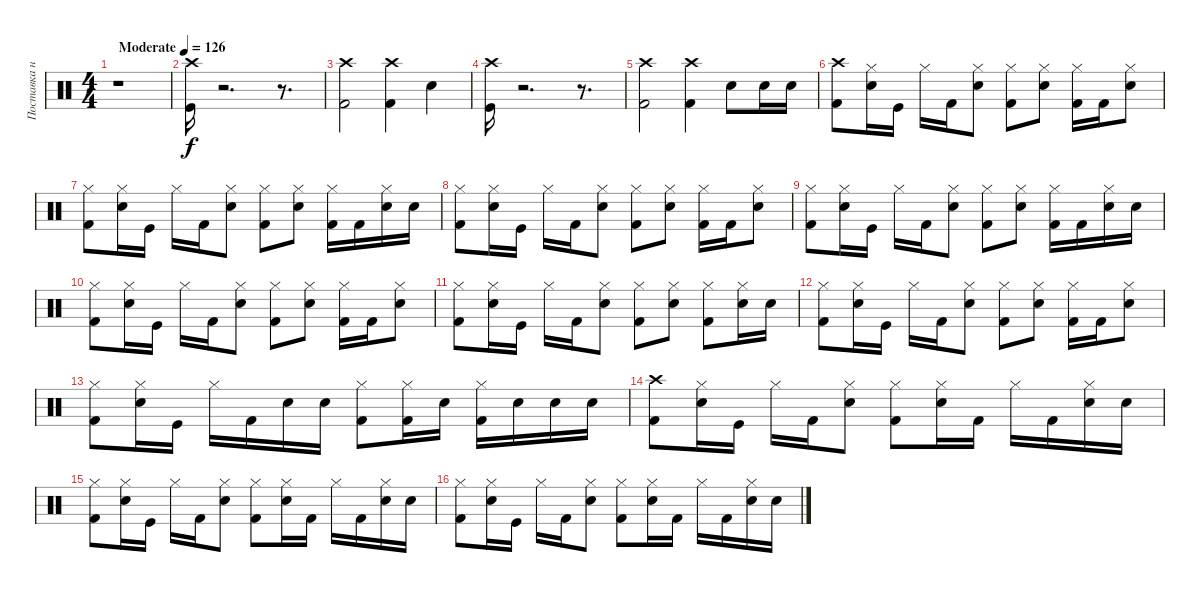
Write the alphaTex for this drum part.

\track ("Поставка на ударки" "Поставка н") {instrument percussion}
\staff {score}
\articulation defaults
\ts (4 4)
\tempo (126 "Moderate")
\clef neutral
\ks c
r.1{dy f} |
("Crash high (hit)" "Kick (hit)").16 r.2{d} r.8{d} |
("Kick (hit) 2" "Crash high (hit)").2 ("Kick (hit) 2" "Crash high (hit)").4 "Snare (hit) 2".4 |
("Crash high (hit)" "Kick (hit)").16 r.2{d} r.8{d} |
("Kick (hit) 2" "Crash high (hit)").2 ("Kick (hit) 2" "Crash high (hit)").4 "Snare (hit) 2".8 "Snare (hit) 2".16 "Snare (hit) 2".16 |
("Crash high (hit)" "Kick (hit) 2").8 ("Hi-Hat (closed)" "Snare (hit) 2").16 "Kick (hit)".16 "Hi-Hat (closed)".16 "Kick (hit) 2".16 ("Snare (hit) 2" "Hi-Hat (closed)").8 ("Kick (hit) 2" "Hi-Hat (closed)").8 ("Snare (hit) 2" "Hi-Hat (closed)").8 ("Kick (hit) 2" "Hi-Hat (closed)").16 "Kick (hit) 2".16 ("Snare (hit) 2" "Hi-Hat (closed)").8 |
("Hi-Hat (closed)" "Kick (hit) 2").8 ("Hi-Hat (closed)" "Snare (hit) 2").16 "Kick (hit)".16 "Hi-Hat (closed)".16 "Kick (hit) 2".16 ("Snare (hit) 2" "Hi-Hat (closed)").8 ("Kick (hit) 2" "Hi-Hat (closed)").8 ("Snare (hit) 2" "Hi-Hat (closed)").8 ("Kick (hit) 2" "Hi-Hat (closed)").16 "Kick (hit) 2".16 ("Snare (hit) 2" "Hi-Hat (closed)").16 "Snare (hit) 2".16 |
("Hi-Hat (closed)" "Kick (hit) 2").8 ("Hi-Hat (closed)" "Snare (hit) 2").16 "Kick (hit)".16 "Hi-Hat (closed)".16 "Kick (hit) 2".16 ("Snare (hit) 2" "Hi-Hat (closed)").8 ("Kick (hit) 2" "Hi-Hat (closed)").8 ("Snare (hit) 2" "Hi-Hat (closed)").8 ("Kick (hit) 2" "Hi-Hat (closed)").16 "Kick (hit) 2".16 ("Snare (hit) 2" "Hi-Hat (closed)").8 |
("Hi-Hat (closed)" "Kick (hit) 2").8 ("Hi-Hat (closed)" "Snare (hit) 2").16 "Kick (hit)".16 "Hi-Hat (closed)".16 "Kick (hit) 2".16 ("Snare (hit) 2" "Hi-Hat (closed)").8 ("Kick (hit) 2" "Hi-Hat (closed)").8 ("Snare (hit) 2" "Hi-Hat (closed)").8 ("Kick (hit) 2" "Hi-Hat (closed)").16 "Kick (hit) 2".16 ("Snare (hit) 2" "Hi-Hat (closed)").16 "Snare (hit) 2".16 |
("Hi-Hat (closed)" "Kick (hit) 2").8 ("Hi-Hat (closed)" "Snare (hit) 2").16 "Kick (hit)".16 "Hi-Hat (closed)".16 "Kick (hit) 2".16 ("Snare (hit) 2" "Hi-Hat (closed)").8 ("Kick (hit) 2" "Hi-Hat (closed)").8 ("Snare (hit) 2" "Hi-Hat (closed)").8 ("Kick (hit) 2" "Hi-Hat (closed)").16 "Kick (hit) 2".16 ("Snare (hit) 2" "Hi-Hat (closed)").8 |
("Hi-Hat (closed)" "Kick (hit) 2").8 ("Hi-Hat (closed)" "Snare (hit) 2").16 "Kick (hit)".16 "Hi-Hat (closed)".16 "Kick (hit) 2".16 ("Snare (hit) 2" "Hi-Hat (closed)").8 ("Kick (hit) 2" "Hi-Hat (closed)").8 ("Snare (hit) 2" "Hi-Hat (closed)").8 ("Kick (hit) 2" "Hi-Hat (closed)").8 ("Snare (hit) 2" "Hi-Hat (closed)").16 "Snare (hit) 2".16 |
("Hi-Hat (closed)" "Kick (hit) 2").8 ("Hi-Hat (closed)" "Snare (hit) 2").16 "Kick (hit)".16 "Hi-Hat (closed)".16 "Kick (hit) 2".16 ("Snare (hit) 2" "Hi-Hat (closed)").8 ("Kick (hit) 2" "Hi-Hat (closed)").8 ("Snare (hit) 2" "Hi-Hat (closed)").8 ("Kick (hit) 2" "Hi-Hat (closed)").16 "Kick (hit) 2".16 ("Snare (hit) 2" "Hi-Hat (closed)").8 |
("Hi-Hat (closed)" "Kick (hit) 2").8 ("Hi-Hat (closed)" "Snare (hit) 2").16 "Kick (hit)".16 "Hi-Hat (closed)".16 "Kick (hit) 2".16 "Snare (hit) 2".16 "Snare (hit) 2".16 ("Kick (hit) 2" "Hi-Hat (closed)").8 ("Kick (hit) 2" "Hi-Hat (closed)").16 "Snare (hit) 2".16 ("Kick (hit) 2" "Hi-Hat (closed)").16 "Snare (hit) 2".16 "Snare (hit) 2".16 "Snare (hit) 2".16 |
("Crash high (hit)" "Kick (hit) 2").8 ("Hi-Hat (closed)" "Snare (hit) 2").16 "Kick (hit)".16 "Hi-Hat (closed)".16 "Kick (hit) 2".16 ("Snare (hit) 2" "Hi-Hat (closed)").8 ("Kick (hit) 2" "Hi-Hat (closed)").8 ("Snare (hit) 2" "Hi-Hat (closed)").16 "Kick (hit) 2".16 "Hi-Hat (closed)".16 "Kick (hit) 2".16 ("Snare (hit) 2" "Hi-Hat (closed)").16 "Snare (hit) 2".16 |
("Hi-Hat (closed)" "Kick (hit) 2").8 ("Hi-Hat (closed)" "Snare (hit) 2").16 "Kick (hit)".16 "Hi-Hat (closed)".16 "Kick (hit) 2".16 ("Snare (hit) 2" "Hi-Hat (closed)").8 ("Kick (hit) 2" "Hi-Hat (closed)").8 ("Snare (hit) 2" "Hi-Hat (closed)").16 "Kick (hit) 2".16 "Hi-Hat (closed)".16 "Kick (hit) 2".16 ("Snare (hit) 2" "Hi-Hat (closed)").16 "Snare (hit) 2".16 |
("Hi-Hat (closed)" "Kick (hit) 2").8 ("Hi-Hat (closed)" "Snare (hit) 2").16 "Kick (hit)".16 "Hi-Hat (closed)".16 "Kick (hit) 2".16 ("Snare (hit) 2" "Hi-Hat (closed)").8 ("Kick (hit) 2" "Hi-Hat (closed)").8 ("Snare (hit) 2" "Hi-Hat (closed)").16 "Kick (hit) 2".16 "Hi-Hat (closed)".16 "Kick (hit) 2".16 ("Snare (hit) 2" "Hi-Hat (closed)").16 "Snare (hit) 2".16
